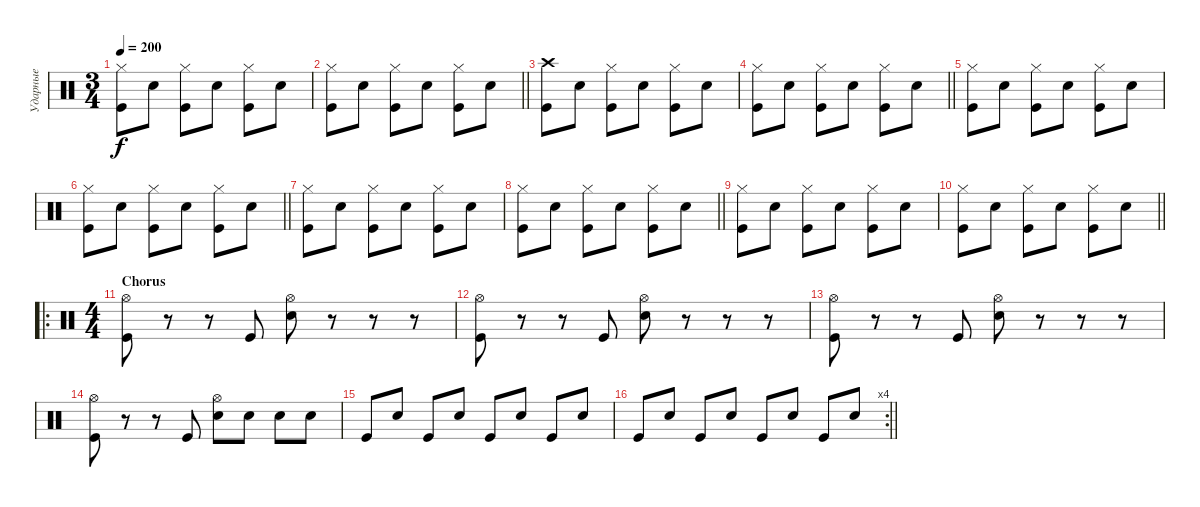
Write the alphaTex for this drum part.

\track ("Ударные" "Ударные") {instrument percussion}
\staff {score}
\articulation defaults
\ts (3 4)
\tempo 200
\clef neutral
\ks c
("Hi-Hat (closed)" "Kick (hit)").8{dy f} "Snare (hit) 2".8 ("Hi-Hat (closed)" "Kick (hit)").8 "Snare (hit) 2".8 ("Hi-Hat (closed)" "Kick (hit)").8 "Snare (hit) 2".8 |
\barLineRight lightlight
("Hi-Hat (closed)" "Kick (hit)").8 "Snare (hit) 2".8 ("Hi-Hat (closed)" "Kick (hit)").8 "Snare (hit) 2".8 ("Hi-Hat (closed)" "Kick (hit)").8 "Snare (hit) 2".8 |
("Crash high (hit)" "Kick (hit)").8 "Snare (hit) 2".8 ("Hi-Hat (closed)" "Kick (hit)").8 "Snare (hit) 2".8 ("Hi-Hat (closed)" "Kick (hit)").8 "Snare (hit) 2".8 |
\barLineRight lightlight
("Hi-Hat (closed)" "Kick (hit)").8 "Snare (hit) 2".8 ("Hi-Hat (closed)" "Kick (hit)").8 "Snare (hit) 2".8 ("Hi-Hat (closed)" "Kick (hit)").8 "Snare (hit) 2".8 |
("Hi-Hat (closed)" "Kick (hit)").8 "Snare (hit) 2".8 ("Hi-Hat (closed)" "Kick (hit)").8 "Snare (hit) 2".8 ("Hi-Hat (closed)" "Kick (hit)").8 "Snare (hit) 2".8 |
\barLineRight lightlight
("Hi-Hat (closed)" "Kick (hit)").8 "Snare (hit) 2".8 ("Hi-Hat (closed)" "Kick (hit)").8 "Snare (hit) 2".8 ("Hi-Hat (closed)" "Kick (hit)").8 "Snare (hit) 2".8 |
("Hi-Hat (closed)" "Kick (hit)").8 "Snare (hit) 2".8 ("Hi-Hat (closed)" "Kick (hit)").8 "Snare (hit) 2".8 ("Hi-Hat (closed)" "Kick (hit)").8 "Snare (hit) 2".8 |
\barLineRight lightlight
("Hi-Hat (closed)" "Kick (hit)").8 "Snare (hit) 2".8 ("Hi-Hat (closed)" "Kick (hit)").8 "Snare (hit) 2".8 ("Hi-Hat (closed)" "Kick (hit)").8 "Snare (hit) 2".8 |
("Hi-Hat (closed)" "Kick (hit)").8 "Snare (hit) 2".8 ("Hi-Hat (closed)" "Kick (hit)").8 "Snare (hit) 2".8 ("Hi-Hat (closed)" "Kick (hit)").8 "Snare (hit) 2".8 |
\barLineRight lightlight
("Hi-Hat (closed)" "Kick (hit)").8 "Snare (hit) 2".8 ("Hi-Hat (closed)" "Kick (hit)").8 "Snare (hit) 2".8 ("Hi-Hat (closed)" "Kick (hit)").8 "Snare (hit) 2".8 |
\ro
\ts (4 4)
\section ("" "Chorus")
("Hi-Hat (open)" "Kick (hit)").8 r.8 r.8 "Kick (hit)".8 ("Hi-Hat (open)" "Snare (hit) 2").8 r.8 r.8 r.8 |
("Hi-Hat (open)" "Kick (hit)").8 r.8 r.8 "Kick (hit)".8 ("Hi-Hat (open)" "Snare (hit) 2").8 r.8 r.8 r.8 |
("Hi-Hat (open)" "Kick (hit)").8 r.8 r.8 "Kick (hit)".8 ("Hi-Hat (open)" "Snare (hit) 2").8 r.8 r.8 r.8 |
("Hi-Hat (open)" "Kick (hit)").8 r.8 r.8 "Kick (hit)".8 ("Hi-Hat (open)" "Snare (hit) 2").8 "Snare (hit) 2".8 "Snare (hit) 2".8 "Snare (hit) 2".8 |
"Kick (hit)".8 "Snare (hit) 2".8 "Kick (hit)".8 "Snare (hit) 2".8 "Kick (hit)".8 "Snare (hit) 2".8 "Kick (hit)".8 "Snare (hit) 2".8 |
\rc 4
\barLineRight lightlight "Kick (hit)".8 "Snare (hit) 2".8 "Kick (hit)".8 "Snare (hit) 2".8 "Kick (hit)".8 "Snare (hit) 2".8 "Kick (hit)".8 "Snare (hit) 2".8
